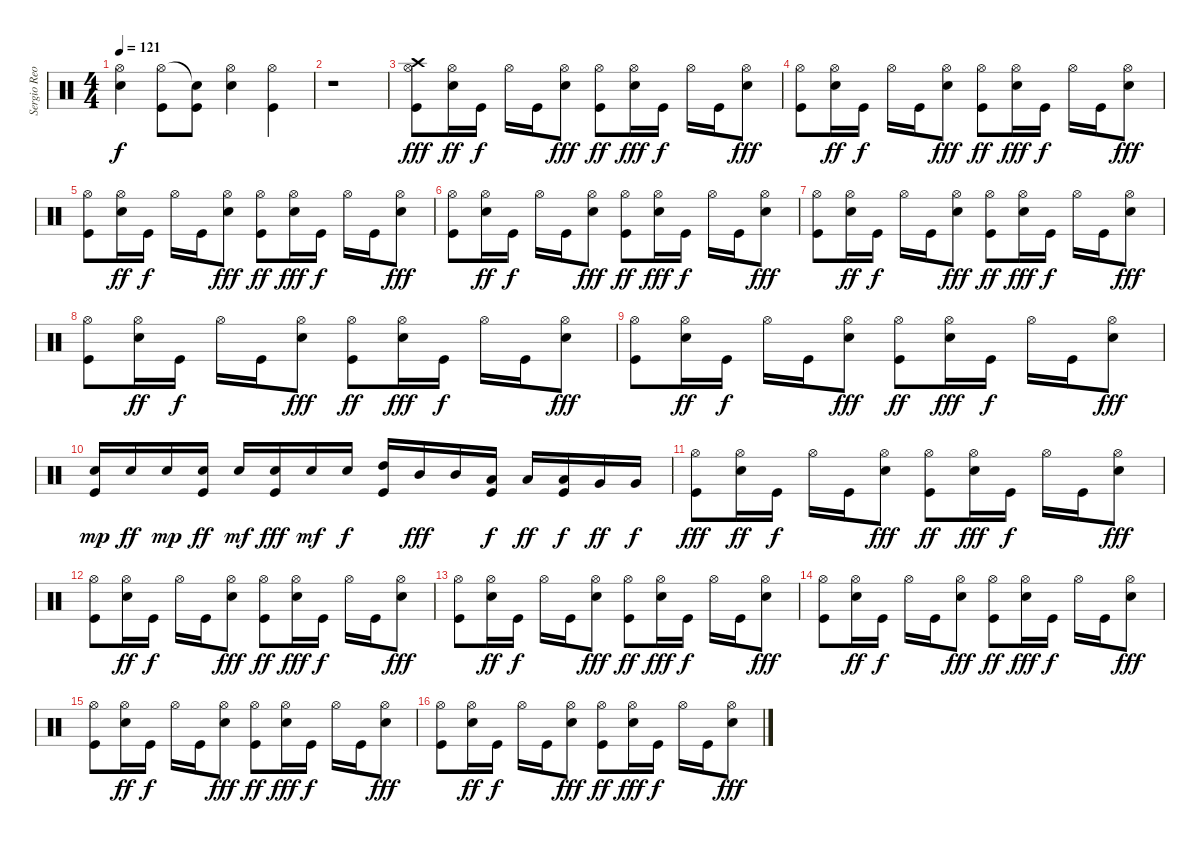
\track ("Sergio Reoli" "Sergio Reo") {instrument percussion}
\staff {score}
\articulation defaults
\ts (4 4)
\tempo 121
\clef neutral
\ks c
("Snare (hit) 2" "Hi-Hat (open)").4{dy f} ("Hi-Hat (open)" "Kick (hit)").8 ("Snare (hit)"{t} "Kick (hit)").8 ("Snare (hit) 2" "Hi-Hat (open)").4 ("Hi-Hat (open)" "Kick (hit)").4 |
r.1 |
("Kick (hit)" "Hi-Hat (open)" "Crash high (hit)").8{dy fff} ("Snare (hit) 2" "Hi-Hat (open)").16{dy ff} "Kick (hit)".16{dy f} "Hi-Hat (open)".16 "Kick (hit)".16 ("Snare (hit) 2" "Hi-Hat (open)").8{dy fff} ("Kick (hit)" "Hi-Hat (open)").8{dy ff} ("Snare (hit) 2" "Hi-Hat (open)").16{dy fff} "Kick (hit)".16{dy f} "Hi-Hat (open)".16 "Kick (hit)".16 ("Snare (hit) 2" "Hi-Hat (open)").8{dy fff} |
("Kick (hit)" "Hi-Hat (open)").8 ("Snare (hit) 2" "Hi-Hat (open)").16{dy ff} "Kick (hit)".16{dy f} "Hi-Hat (open)".16 "Kick (hit)".16 ("Snare (hit) 2" "Hi-Hat (open)").8{dy fff} ("Kick (hit)" "Hi-Hat (open)").8{dy ff} ("Snare (hit) 2" "Hi-Hat (open)").16{dy fff} "Kick (hit)".16{dy f} "Hi-Hat (open)".16 "Kick (hit)".16 ("Snare (hit) 2" "Hi-Hat (open)").8{dy fff} |
("Kick (hit)" "Hi-Hat (open)").8 ("Snare (hit) 2" "Hi-Hat (open)").16{dy ff} "Kick (hit)".16{dy f} "Hi-Hat (open)".16 "Kick (hit)".16 ("Snare (hit) 2" "Hi-Hat (open)").8{dy fff} ("Kick (hit)" "Hi-Hat (open)").8{dy ff} ("Snare (hit) 2" "Hi-Hat (open)").16{dy fff} "Kick (hit)".16{dy f} "Hi-Hat (open)".16 "Kick (hit)".16 ("Snare (hit) 2" "Hi-Hat (open)").8{dy fff} |
("Kick (hit)" "Hi-Hat (open)").8 ("Snare (hit) 2" "Hi-Hat (open)").16{dy ff} "Kick (hit)".16{dy f} "Hi-Hat (open)".16 "Kick (hit)".16 ("Snare (hit) 2" "Hi-Hat (open)").8{dy fff} ("Kick (hit)" "Hi-Hat (open)").8{dy ff} ("Snare (hit) 2" "Hi-Hat (open)").16{dy fff} "Kick (hit)".16{dy f} "Hi-Hat (open)".16 "Kick (hit)".16 ("Snare (hit) 2" "Hi-Hat (open)").8{dy fff} |
("Kick (hit)" "Hi-Hat (open)").8 ("Snare (hit) 2" "Hi-Hat (open)").16{dy ff} "Kick (hit)".16{dy f} "Hi-Hat (open)".16 "Kick (hit)".16 ("Snare (hit) 2" "Hi-Hat (open)").8{dy fff} ("Kick (hit)" "Hi-Hat (open)").8{dy ff} ("Snare (hit) 2" "Hi-Hat (open)").16{dy fff} "Kick (hit)".16{dy f} "Hi-Hat (open)".16 "Kick (hit)".16 ("Snare (hit) 2" "Hi-Hat (open)").8{dy fff} |
("Kick (hit)" "Hi-Hat (open)").8 ("Snare (hit) 2" "Hi-Hat (open)").16{dy ff} "Kick (hit)".16{dy f} "Hi-Hat (open)".16 "Kick (hit)".16 ("Snare (hit) 2" "Hi-Hat (open)").8{dy fff} ("Kick (hit)" "Hi-Hat (open)").8{dy ff} ("Snare (hit) 2" "Hi-Hat (open)").16{dy fff} "Kick (hit)".16{dy f} "Hi-Hat (open)".16 "Kick (hit)".16 ("Snare (hit) 2" "Hi-Hat (open)").8{dy fff} |
("Kick (hit)" "Hi-Hat (open)").8 ("Snare (hit) 2" "Hi-Hat (open)").16{dy ff} "Kick (hit)".16{dy f} "Hi-Hat (open)".16 "Kick (hit)".16 ("Snare (hit) 2" "Hi-Hat (open)").8{dy fff} ("Kick (hit)" "Hi-Hat (open)").8{dy ff} ("Snare (hit) 2" "Hi-Hat (open)").16{dy fff} "Kick (hit)".16{dy f} "Hi-Hat (open)".16 "Kick (hit)".16 ("Snare (hit) 2" "Hi-Hat (open)").8{dy fff} |
("Snare (hit) 2" "Kick (hit)").16{dy mp} "Snare (hit) 2".16{dy ff} "Snare (hit) 2".16{dy mp} ("Snare (hit) 2" "Kick (hit)").16{dy ff} "Snare (hit) 2".16{dy mf} ("Snare (hit) 2" "Kick (hit)").16{dy fff} "Snare (hit) 2".16{dy mf} "Snare (hit) 2".16{dy f} ("High Tom (hit)" "Kick (hit)").16 "Mid Tom (hit)".16{dy fff} "Mid Tom (hit)".16 ("Low Tom (hit)" "Kick (hit)").16{dy f} "Low Tom (hit)".16{dy ff} ("Low Tom (hit)" "Kick (hit)").16{dy f} "Very Low Tom (hit)".16{dy ff} "Very Low Tom (hit)".16{dy f} |
("Kick (hit)" "Hi-Hat (open)").8{dy fff} ("Snare (hit) 2" "Hi-Hat (open)").16{dy ff} "Kick (hit)".16{dy f} "Hi-Hat (open)".16 "Kick (hit)".16 ("Snare (hit) 2" "Hi-Hat (open)").8{dy fff} ("Kick (hit)" "Hi-Hat (open)").8{dy ff} ("Snare (hit) 2" "Hi-Hat (open)").16{dy fff} "Kick (hit)".16{dy f} "Hi-Hat (open)".16 "Kick (hit)".16 ("Snare (hit) 2" "Hi-Hat (open)").8{dy fff} |
("Kick (hit)" "Hi-Hat (open)").8 ("Snare (hit) 2" "Hi-Hat (open)").16{dy ff} "Kick (hit)".16{dy f} "Hi-Hat (open)".16 "Kick (hit)".16 ("Snare (hit) 2" "Hi-Hat (open)").8{dy fff} ("Kick (hit)" "Hi-Hat (open)").8{dy ff} ("Snare (hit) 2" "Hi-Hat (open)").16{dy fff} "Kick (hit)".16{dy f} "Hi-Hat (open)".16 "Kick (hit)".16 ("Snare (hit) 2" "Hi-Hat (open)").8{dy fff} |
("Kick (hit)" "Hi-Hat (open)").8 ("Snare (hit) 2" "Hi-Hat (open)").16{dy ff} "Kick (hit)".16{dy f} "Hi-Hat (open)".16 "Kick (hit)".16 ("Snare (hit) 2" "Hi-Hat (open)").8{dy fff} ("Kick (hit)" "Hi-Hat (open)").8{dy ff} ("Snare (hit) 2" "Hi-Hat (open)").16{dy fff} "Kick (hit)".16{dy f} "Hi-Hat (open)".16 "Kick (hit)".16 ("Snare (hit) 2" "Hi-Hat (open)").8{dy fff} |
("Kick (hit)" "Hi-Hat (open)").8 ("Snare (hit) 2" "Hi-Hat (open)").16{dy ff} "Kick (hit)".16{dy f} "Hi-Hat (open)".16 "Kick (hit)".16 ("Snare (hit) 2" "Hi-Hat (open)").8{dy fff} ("Kick (hit)" "Hi-Hat (open)").8{dy ff} ("Snare (hit) 2" "Hi-Hat (open)").16{dy fff} "Kick (hit)".16{dy f} "Hi-Hat (open)".16 "Kick (hit)".16 ("Snare (hit) 2" "Hi-Hat (open)").8{dy fff} |
("Kick (hit)" "Hi-Hat (open)").8 ("Snare (hit) 2" "Hi-Hat (open)").16{dy ff} "Kick (hit)".16{dy f} "Hi-Hat (open)".16 "Kick (hit)".16 ("Snare (hit) 2" "Hi-Hat (open)").8{dy fff} ("Kick (hit)" "Hi-Hat (open)").8{dy ff} ("Snare (hit) 2" "Hi-Hat (open)").16{dy fff} "Kick (hit)".16{dy f} "Hi-Hat (open)".16 "Kick (hit)".16 ("Snare (hit) 2" "Hi-Hat (open)").8{dy fff} |
("Kick (hit)" "Hi-Hat (open)").8 ("Snare (hit) 2" "Hi-Hat (open)").16{dy ff} "Kick (hit)".16{dy f} "Hi-Hat (open)".16 "Kick (hit)".16 ("Snare (hit) 2" "Hi-Hat (open)").8{dy fff} ("Kick (hit)" "Hi-Hat (open)").8{dy ff} ("Snare (hit) 2" "Hi-Hat (open)").16{dy fff} "Kick (hit)".16{dy f} "Hi-Hat (open)".16 "Kick (hit)".16 ("Snare (hit) 2" "Hi-Hat (open)").8{dy fff}
